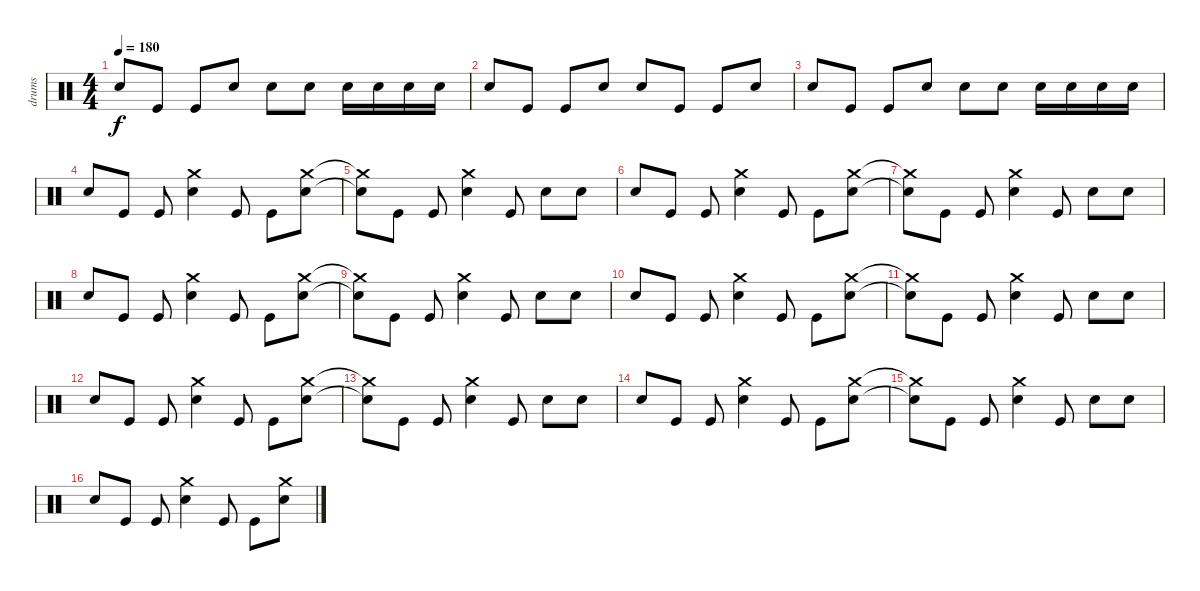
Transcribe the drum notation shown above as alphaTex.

\track ("drums" "drums") {instrument percussion}
\staff {score}
\articulation defaults
\ts (4 4)
\tempo 180
\clef neutral
\ks c "Electric Snare (hit)".8{dy f} "Kick (hit)".8 "Kick (hit)".8 "Electric Snare (hit)".8 "Electric Snare (hit)".8 "Electric Snare (hit)".8 "Electric Snare (hit)".16 "Electric Snare (hit)".16 "Electric Snare (hit)".16 "Electric Snare (hit)".16
|
"Electric Snare (hit)".8 "Kick (hit)".8 "Kick (hit)".8 "Electric Snare (hit)".8 "Electric Snare (hit)".8 "Kick (hit)".8 "Kick (hit)".8 "Electric Snare (hit)".8 |
"Electric Snare (hit)".8 "Kick (hit)".8 "Kick (hit)".8 "Electric Snare (hit)".8 "Electric Snare (hit)".8 "Electric Snare (hit)".8 "Electric Snare (hit)".16 "Electric Snare (hit)".16 "Electric Snare (hit)".16 "Electric Snare (hit)".16 |
"Electric Snare (hit)".8 "Kick (hit)".8 "Kick (hit)".8 ("Crash medium (hit)" "Electric Snare (hit)").4 "Kick (hit)".8 "Kick (hit)".8 ("Crash medium (hit)" "Electric Snare (hit)").8 |
("Crash medium (hit)"{t} "Electric Snare (hit)"{t}).8 "Kick (hit)".8 "Kick (hit)".8 ("Crash medium (hit)" "Electric Snare (hit)").4 "Kick (hit)".8 "Electric Snare (hit)".8 "Electric Snare (hit)".8 |
"Electric Snare (hit)".8 "Kick (hit)".8 "Kick (hit)".8 ("Crash medium (hit)" "Electric Snare (hit)").4 "Kick (hit)".8 "Kick (hit)".8 ("Crash medium (hit)" "Electric Snare (hit)").8 |
("Crash medium (hit)"{t} "Electric Snare (hit)"{t}).8 "Kick (hit)".8 "Kick (hit)".8 ("Crash medium (hit)" "Electric Snare (hit)").4 "Kick (hit)".8 "Electric Snare (hit)".8 "Electric Snare (hit)".8 |
"Electric Snare (hit)".8 "Kick (hit)".8 "Kick (hit)".8 ("Crash medium (hit)" "Electric Snare (hit)").4 "Kick (hit)".8 "Kick (hit)".8 ("Crash medium (hit)" "Electric Snare (hit)").8 |
("Crash medium (hit)"{t} "Electric Snare (hit)"{t}).8 "Kick (hit)".8 "Kick (hit)".8 ("Crash medium (hit)" "Electric Snare (hit)").4 "Kick (hit)".8 "Electric Snare (hit)".8 "Electric Snare (hit)".8 |
"Electric Snare (hit)".8 "Kick (hit)".8 "Kick (hit)".8 ("Crash medium (hit)" "Electric Snare (hit)").4 "Kick (hit)".8 "Kick (hit)".8 ("Crash medium (hit)" "Electric Snare (hit)").8 |
("Crash medium (hit)"{t} "Electric Snare (hit)"{t}).8 "Kick (hit)".8 "Kick (hit)".8 ("Crash medium (hit)" "Electric Snare (hit)").4 "Kick (hit)".8 "Electric Snare (hit)".8 "Electric Snare (hit)".8 |
"Electric Snare (hit)".8 "Kick (hit)".8 "Kick (hit)".8 ("Crash medium (hit)" "Electric Snare (hit)").4 "Kick (hit)".8 "Kick (hit)".8 ("Crash medium (hit)" "Electric Snare (hit)").8 |
("Crash medium (hit)"{t} "Electric Snare (hit)"{t}).8 "Kick (hit)".8 "Kick (hit)".8 ("Crash medium (hit)" "Electric Snare (hit)").4 "Kick (hit)".8 "Electric Snare (hit)".8 "Electric Snare (hit)".8 |
"Electric Snare (hit)".8 "Kick (hit)".8 "Kick (hit)".8 ("Crash medium (hit)" "Electric Snare (hit)").4 "Kick (hit)".8 "Kick (hit)".8 ("Crash medium (hit)" "Electric Snare (hit)").8 |
("Crash medium (hit)"{t} "Electric Snare (hit)"{t}).8 "Kick (hit)".8 "Kick (hit)".8 ("Crash medium (hit)" "Electric Snare (hit)").4 "Kick (hit)".8 "Electric Snare (hit)".8 "Electric Snare (hit)".8 |
"Electric Snare (hit)".8 "Kick (hit)".8 "Kick (hit)".8 ("Crash medium (hit)" "Electric Snare (hit)").4 "Kick (hit)".8 "Kick (hit)".8 ("Crash medium (hit)" "Electric Snare (hit)").8
